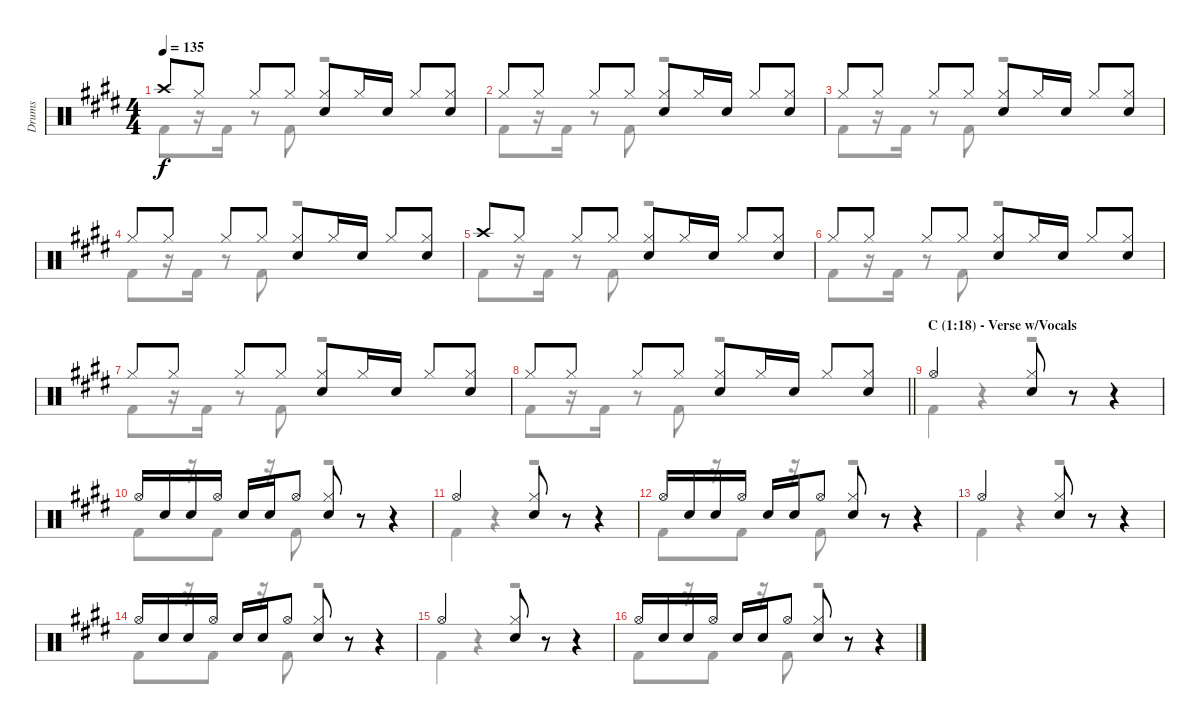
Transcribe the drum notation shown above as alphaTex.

\track ("Drums" "Drums") {instrument percussion}
\staff {score}
\articulation defaults
\voice
\ts (4 4)
\tempo 135
\clef neutral
\ks c#minor "Crash high (hit)".8{dy f} "Hi-Hat (closed)".8 "Hi-Hat (closed)".8 "Hi-Hat (closed)".8
("Hi-Hat (closed)" "Snare (hit) 2").8 "Hi-Hat (closed)".16 "Snare (hit) 2".16 "Hi-Hat (closed)".8 ("Hi-Hat (closed)" "Snare (hit) 2").8 |
"Hi-Hat (closed)".8 "Hi-Hat (closed)".8 "Hi-Hat (closed)".8 "Hi-Hat (closed)".8 ("Hi-Hat (closed)" "Snare (hit) 2").8 "Hi-Hat (closed)".16 "Snare (hit) 2".16 "Hi-Hat (closed)".8 ("Hi-Hat (closed)" "Snare (hit) 2").8 |
"Hi-Hat (closed)".8 "Hi-Hat (closed)".8 "Hi-Hat (closed)".8 "Hi-Hat (closed)".8 ("Hi-Hat (closed)" "Snare (hit) 2").8 "Hi-Hat (closed)".16 "Snare (hit) 2".16 "Hi-Hat (closed)".8 ("Hi-Hat (closed)" "Snare (hit) 2").8 |
"Hi-Hat (closed)".8 "Hi-Hat (closed)".8 "Hi-Hat (closed)".8 "Hi-Hat (closed)".8 ("Hi-Hat (closed)" "Snare (hit) 2").8 "Hi-Hat (closed)".16 "Snare (hit) 2".16 "Hi-Hat (closed)".8 ("Hi-Hat (closed)" "Snare (hit) 2").8 |
"Crash high (hit)".8 "Hi-Hat (closed)".8 "Hi-Hat (closed)".8 "Hi-Hat (closed)".8 ("Hi-Hat (closed)" "Snare (hit) 2").8 "Hi-Hat (closed)".16 "Snare (hit) 2".16 "Hi-Hat (closed)".8 ("Hi-Hat (closed)" "Snare (hit) 2").8 |
"Hi-Hat (closed)".8 "Hi-Hat (closed)".8 "Hi-Hat (closed)".8 "Hi-Hat (closed)".8 ("Hi-Hat (closed)" "Snare (hit) 2").8 "Hi-Hat (closed)".16 "Snare (hit) 2".16 "Hi-Hat (closed)".8 ("Hi-Hat (closed)" "Snare (hit) 2").8 |
"Hi-Hat (closed)".8 "Hi-Hat (closed)".8 "Hi-Hat (closed)".8 "Hi-Hat (closed)".8 ("Hi-Hat (closed)" "Snare (hit) 2").8 "Hi-Hat (closed)".16 "Snare (hit) 2".16 "Hi-Hat (closed)".8 ("Hi-Hat (closed)" "Snare (hit) 2").8 |
\barLineRight lightlight "Hi-Hat (closed)".8 "Hi-Hat (closed)".8 "Hi-Hat (closed)".8 "Hi-Hat (closed)".8
("Hi-Hat (closed)" "Snare (hit) 2").8 "Hi-Hat (closed)".16 "Snare (hit) 2".16 "Hi-Hat (closed)".8 ("Hi-Hat (closed)" "Snare (hit) 2").8 |
\section ("" "C (1:18) - Verse w/Vocals")
"Hi-Hat (open)".2 ("Hi-Hat (closed)" "Snare (hit) 2").8 r.8 r.4 |
"Hi-Hat (open)".16 "Snare (hit) 2".16 "Snare (hit) 2".16 "Hi-Hat (open)".16 "Snare (hit) 2".16 "Snare (hit) 2".16 "Hi-Hat (open)".8 ("Hi-Hat (closed)" "Snare (hit) 2").8 r.8 r.4 |
"Hi-Hat (open)".2 ("Hi-Hat (closed)" "Snare (hit) 2").8 r.8 r.4 |
"Hi-Hat (open)".16 "Snare (hit) 2".16 "Snare (hit) 2".16 "Hi-Hat (open)".16 "Snare (hit) 2".16 "Snare (hit) 2".16 "Hi-Hat (open)".8 ("Hi-Hat (closed)" "Snare (hit) 2").8 r.8 r.4 |
"Hi-Hat (open)".2 ("Hi-Hat (closed)" "Snare (hit) 2").8 r.8 r.4 |
"Hi-Hat (open)".16 "Snare (hit) 2".16 "Snare (hit) 2".16 "Hi-Hat (open)".16 "Snare (hit) 2".16 "Snare (hit) 2".16 "Hi-Hat (open)".8 ("Hi-Hat (closed)" "Snare (hit) 2").8 r.8 r.4 |
"Hi-Hat (open)".2 ("Hi-Hat (closed)" "Snare (hit) 2").8 r.8 r.4 |
"Hi-Hat (open)".16 "Snare (hit) 2".16 "Snare (hit) 2".16 "Hi-Hat (open)".16 "Snare (hit) 2".16 "Snare (hit) 2".16 "Hi-Hat (open)".8 ("Hi-Hat (closed)" "Snare (hit) 2").8 r.8 r.4
\voice
\clef neutral
\ottava regular
\simile none
\ks c#minor "Kick (hit) 2".8{dy f}
r.16 "Kick (hit) 2".16 r.8 "Kick (hit) 2".8 r.2 |
"Kick (hit) 2".8 r.16 "Kick (hit) 2".16 r.8 "Kick (hit) 2".8 r.2 |
"Kick (hit) 2".8 r.16 "Kick (hit) 2".16 r.8 "Kick (hit) 2".8 r.2 |
"Kick (hit) 2".8 r.16 "Kick (hit) 2".16 r.8 "Kick (hit) 2".8 r.2 |
"Kick (hit) 2".8 r.16 "Kick (hit) 2".16 r.8 "Kick (hit) 2".8 r.2 |
"Kick (hit) 2".8 r.16 "Kick (hit) 2".16 r.8 "Kick (hit) 2".8 r.2 |
"Kick (hit) 2".8 r.16 "Kick (hit) 2".16 r.8 "Kick (hit) 2".8 r.2 |
\barLineRight lightlight "Kick (hit) 2".8
r.16 "Kick (hit) 2".16 r.8 "Kick (hit) 2".8 r.2 |
"Kick (hit) 2".4 r.4 r.2 |
"Kick (hit) 2".8 r.16 "Kick (hit) 2".8 r.16 "Kick (hit) 2".8 r.2 |
"Kick (hit) 2".4 r.4 r.2 |
"Kick (hit) 2".8 r.16 "Kick (hit) 2".8 r.16 "Kick (hit) 2".8 r.2 |
"Kick (hit) 2".4 r.4 r.2 |
"Kick (hit) 2".8 r.16 "Kick (hit) 2".8 r.16 "Kick (hit) 2".8 r.2 |
"Kick (hit) 2".4 r.4 r.2 |
"Kick (hit) 2".8 r.16 "Kick (hit) 2".8 r.16 "Kick (hit) 2".8 r.2
